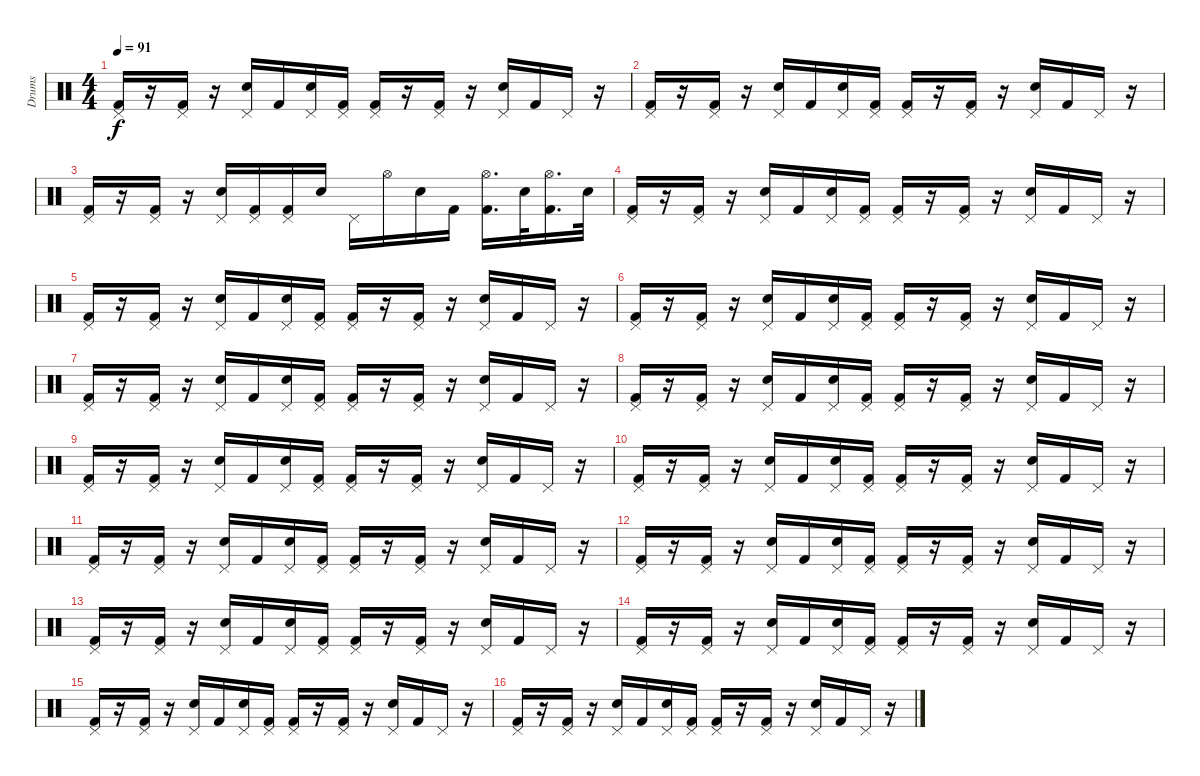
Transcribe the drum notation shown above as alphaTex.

\track ("Drums" "Drums") {instrument percussion}
\staff {score}
\articulation defaults
\ts (4 4)
\tempo 91
\clef neutral
\ks c
("Pedal Hi-Hat (hit)" "Kick (hit) 2").16{dy f} r.16 ("Pedal Hi-Hat (hit)" "Kick (hit) 2").16 r.16 ("Pedal Hi-Hat (hit)" "Snare (hit) 2").16 "Kick (hit) 2".16 ("Pedal Hi-Hat (hit)" "Snare (hit) 2").16 ("Pedal Hi-Hat (hit)" "Kick (hit) 2").16 ("Pedal Hi-Hat (hit)" "Kick (hit) 2").16 r.16 ("Pedal Hi-Hat (hit)" "Kick (hit) 2").16 r.16 ("Pedal Hi-Hat (hit)" "Snare (hit) 2").16 "Kick (hit) 2".16 "Pedal Hi-Hat (hit)".16 r.16 |
("Pedal Hi-Hat (hit)" "Kick (hit) 2").16 r.16 ("Pedal Hi-Hat (hit)" "Kick (hit) 2").16 r.16 ("Pedal Hi-Hat (hit)" "Snare (hit) 2").16 "Kick (hit) 2".16 ("Pedal Hi-Hat (hit)" "Snare (hit) 2").16 ("Pedal Hi-Hat (hit)" "Kick (hit) 2").16 ("Pedal Hi-Hat (hit)" "Kick (hit) 2").16 r.16 ("Pedal Hi-Hat (hit)" "Kick (hit) 2").16 r.16 ("Pedal Hi-Hat (hit)" "Snare (hit) 2").16 "Kick (hit) 2".16 "Pedal Hi-Hat (hit)".16 r.16 |
("Pedal Hi-Hat (hit)" "Kick (hit) 2").16 r.16 ("Pedal Hi-Hat (hit)" "Kick (hit) 2").16 r.16 ("Pedal Hi-Hat (hit)" "Snare (hit) 2").16 ("Pedal Hi-Hat (hit)" "Kick (hit) 2").16 ("Pedal Hi-Hat (hit)" "Kick (hit) 2").16 "Snare (hit) 2".16 "Pedal Hi-Hat (hit)".16 "Hi-Hat (open)".16 "Snare (hit) 2".16 "Kick (hit) 2".16 ("Hi-Hat (open)" "Kick (hit) 2").16{d} "Snare (hit) 2".32 ("Hi-Hat (open)" "Kick (hit) 2").16{d} "Snare (hit) 2".32 |
("Pedal Hi-Hat (hit)" "Kick (hit) 2").16 r.16 ("Pedal Hi-Hat (hit)" "Kick (hit) 2").16 r.16 ("Pedal Hi-Hat (hit)" "Snare (hit) 2").16 "Kick (hit) 2".16 ("Pedal Hi-Hat (hit)" "Snare (hit) 2").16 ("Pedal Hi-Hat (hit)" "Kick (hit) 2").16 ("Pedal Hi-Hat (hit)" "Kick (hit) 2").16 r.16 ("Pedal Hi-Hat (hit)" "Kick (hit) 2").16 r.16 ("Pedal Hi-Hat (hit)" "Snare (hit) 2").16 "Kick (hit) 2".16 "Pedal Hi-Hat (hit)".16 r.16 |
("Pedal Hi-Hat (hit)" "Kick (hit) 2").16 r.16 ("Pedal Hi-Hat (hit)" "Kick (hit) 2").16 r.16 ("Pedal Hi-Hat (hit)" "Snare (hit) 2").16 "Kick (hit) 2".16 ("Pedal Hi-Hat (hit)" "Snare (hit) 2").16 ("Pedal Hi-Hat (hit)" "Kick (hit) 2").16 ("Pedal Hi-Hat (hit)" "Kick (hit) 2").16 r.16 ("Pedal Hi-Hat (hit)" "Kick (hit) 2").16 r.16 ("Pedal Hi-Hat (hit)" "Snare (hit) 2").16 "Kick (hit) 2".16 "Pedal Hi-Hat (hit)".16 r.16 |
("Pedal Hi-Hat (hit)" "Kick (hit) 2").16 r.16 ("Pedal Hi-Hat (hit)" "Kick (hit) 2").16 r.16 ("Pedal Hi-Hat (hit)" "Snare (hit) 2").16 "Kick (hit) 2".16 ("Pedal Hi-Hat (hit)" "Snare (hit) 2").16 ("Pedal Hi-Hat (hit)" "Kick (hit) 2").16 ("Pedal Hi-Hat (hit)" "Kick (hit) 2").16 r.16 ("Pedal Hi-Hat (hit)" "Kick (hit) 2").16 r.16 ("Pedal Hi-Hat (hit)" "Snare (hit) 2").16 "Kick (hit) 2".16 "Pedal Hi-Hat (hit)".16 r.16 |
("Pedal Hi-Hat (hit)" "Kick (hit) 2").16 r.16 ("Pedal Hi-Hat (hit)" "Kick (hit) 2").16 r.16 ("Pedal Hi-Hat (hit)" "Snare (hit) 2").16 "Kick (hit) 2".16 ("Pedal Hi-Hat (hit)" "Snare (hit) 2").16 ("Pedal Hi-Hat (hit)" "Kick (hit) 2").16 ("Pedal Hi-Hat (hit)" "Kick (hit) 2").16 r.16 ("Pedal Hi-Hat (hit)" "Kick (hit) 2").16 r.16 ("Pedal Hi-Hat (hit)" "Snare (hit) 2").16 "Kick (hit) 2".16 "Pedal Hi-Hat (hit)".16 r.16 |
("Pedal Hi-Hat (hit)" "Kick (hit) 2").16 r.16 ("Pedal Hi-Hat (hit)" "Kick (hit) 2").16 r.16 ("Pedal Hi-Hat (hit)" "Snare (hit) 2").16 "Kick (hit) 2".16 ("Pedal Hi-Hat (hit)" "Snare (hit) 2").16 ("Pedal Hi-Hat (hit)" "Kick (hit) 2").16 ("Pedal Hi-Hat (hit)" "Kick (hit) 2").16 r.16 ("Pedal Hi-Hat (hit)" "Kick (hit) 2").16 r.16 ("Pedal Hi-Hat (hit)" "Snare (hit) 2").16 "Kick (hit) 2".16 "Pedal Hi-Hat (hit)".16 r.16 |
("Pedal Hi-Hat (hit)" "Kick (hit) 2").16 r.16 ("Pedal Hi-Hat (hit)" "Kick (hit) 2").16 r.16 ("Pedal Hi-Hat (hit)" "Snare (hit) 2").16 "Kick (hit) 2".16 ("Pedal Hi-Hat (hit)" "Snare (hit) 2").16 ("Pedal Hi-Hat (hit)" "Kick (hit) 2").16 ("Pedal Hi-Hat (hit)" "Kick (hit) 2").16 r.16 ("Pedal Hi-Hat (hit)" "Kick (hit) 2").16 r.16 ("Pedal Hi-Hat (hit)" "Snare (hit) 2").16 "Kick (hit) 2".16 "Pedal Hi-Hat (hit)".16 r.16 |
("Pedal Hi-Hat (hit)" "Kick (hit) 2").16 r.16 ("Pedal Hi-Hat (hit)" "Kick (hit) 2").16 r.16 ("Pedal Hi-Hat (hit)" "Snare (hit) 2").16 "Kick (hit) 2".16 ("Pedal Hi-Hat (hit)" "Snare (hit) 2").16 ("Pedal Hi-Hat (hit)" "Kick (hit) 2").16 ("Pedal Hi-Hat (hit)" "Kick (hit) 2").16 r.16 ("Pedal Hi-Hat (hit)" "Kick (hit) 2").16 r.16 ("Pedal Hi-Hat (hit)" "Snare (hit) 2").16 "Kick (hit) 2".16 "Pedal Hi-Hat (hit)".16 r.16 |
("Pedal Hi-Hat (hit)" "Kick (hit) 2").16 r.16 ("Pedal Hi-Hat (hit)" "Kick (hit) 2").16 r.16 ("Pedal Hi-Hat (hit)" "Snare (hit) 2").16 "Kick (hit) 2".16 ("Pedal Hi-Hat (hit)" "Snare (hit) 2").16 ("Pedal Hi-Hat (hit)" "Kick (hit) 2").16 ("Pedal Hi-Hat (hit)" "Kick (hit) 2").16 r.16 ("Pedal Hi-Hat (hit)" "Kick (hit) 2").16 r.16 ("Pedal Hi-Hat (hit)" "Snare (hit) 2").16 "Kick (hit) 2".16 "Pedal Hi-Hat (hit)".16 r.16 |
("Pedal Hi-Hat (hit)" "Kick (hit) 2").16 r.16 ("Pedal Hi-Hat (hit)" "Kick (hit) 2").16 r.16 ("Pedal Hi-Hat (hit)" "Snare (hit) 2").16 "Kick (hit) 2".16 ("Pedal Hi-Hat (hit)" "Snare (hit) 2").16 ("Pedal Hi-Hat (hit)" "Kick (hit) 2").16 ("Pedal Hi-Hat (hit)" "Kick (hit) 2").16 r.16 ("Pedal Hi-Hat (hit)" "Kick (hit) 2").16 r.16 ("Pedal Hi-Hat (hit)" "Snare (hit) 2").16 "Kick (hit) 2".16 "Pedal Hi-Hat (hit)".16 r.16 |
("Pedal Hi-Hat (hit)" "Kick (hit) 2").16 r.16 ("Pedal Hi-Hat (hit)" "Kick (hit) 2").16 r.16 ("Pedal Hi-Hat (hit)" "Snare (hit) 2").16 "Kick (hit) 2".16 ("Pedal Hi-Hat (hit)" "Snare (hit) 2").16 ("Pedal Hi-Hat (hit)" "Kick (hit) 2").16 ("Pedal Hi-Hat (hit)" "Kick (hit) 2").16 r.16 ("Pedal Hi-Hat (hit)" "Kick (hit) 2").16 r.16 ("Pedal Hi-Hat (hit)" "Snare (hit) 2").16 "Kick (hit) 2".16 "Pedal Hi-Hat (hit)".16 r.16 |
("Pedal Hi-Hat (hit)" "Kick (hit) 2").16 r.16 ("Pedal Hi-Hat (hit)" "Kick (hit) 2").16 r.16 ("Pedal Hi-Hat (hit)" "Snare (hit) 2").16 "Kick (hit) 2".16 ("Pedal Hi-Hat (hit)" "Snare (hit) 2").16 ("Pedal Hi-Hat (hit)" "Kick (hit) 2").16 ("Pedal Hi-Hat (hit)" "Kick (hit) 2").16 r.16 ("Pedal Hi-Hat (hit)" "Kick (hit) 2").16 r.16 ("Pedal Hi-Hat (hit)" "Snare (hit) 2").16 "Kick (hit) 2".16 "Pedal Hi-Hat (hit)".16 r.16 |
("Pedal Hi-Hat (hit)" "Kick (hit) 2").16 r.16 ("Pedal Hi-Hat (hit)" "Kick (hit) 2").16 r.16 ("Pedal Hi-Hat (hit)" "Snare (hit) 2").16 "Kick (hit) 2".16 ("Pedal Hi-Hat (hit)" "Snare (hit) 2").16 ("Pedal Hi-Hat (hit)" "Kick (hit) 2").16 ("Pedal Hi-Hat (hit)" "Kick (hit) 2").16 r.16 ("Pedal Hi-Hat (hit)" "Kick (hit) 2").16 r.16 ("Pedal Hi-Hat (hit)" "Snare (hit) 2").16 "Kick (hit) 2".16 "Pedal Hi-Hat (hit)".16 r.16 |
("Pedal Hi-Hat (hit)" "Kick (hit) 2").16 r.16 ("Pedal Hi-Hat (hit)" "Kick (hit) 2").16 r.16 ("Pedal Hi-Hat (hit)" "Snare (hit) 2").16 "Kick (hit) 2".16 ("Pedal Hi-Hat (hit)" "Snare (hit) 2").16 ("Pedal Hi-Hat (hit)" "Kick (hit) 2").16 ("Pedal Hi-Hat (hit)" "Kick (hit) 2").16 r.16 ("Pedal Hi-Hat (hit)" "Kick (hit) 2").16 r.16 ("Pedal Hi-Hat (hit)" "Snare (hit) 2").16 "Kick (hit) 2".16 "Pedal Hi-Hat (hit)".16 r.16
